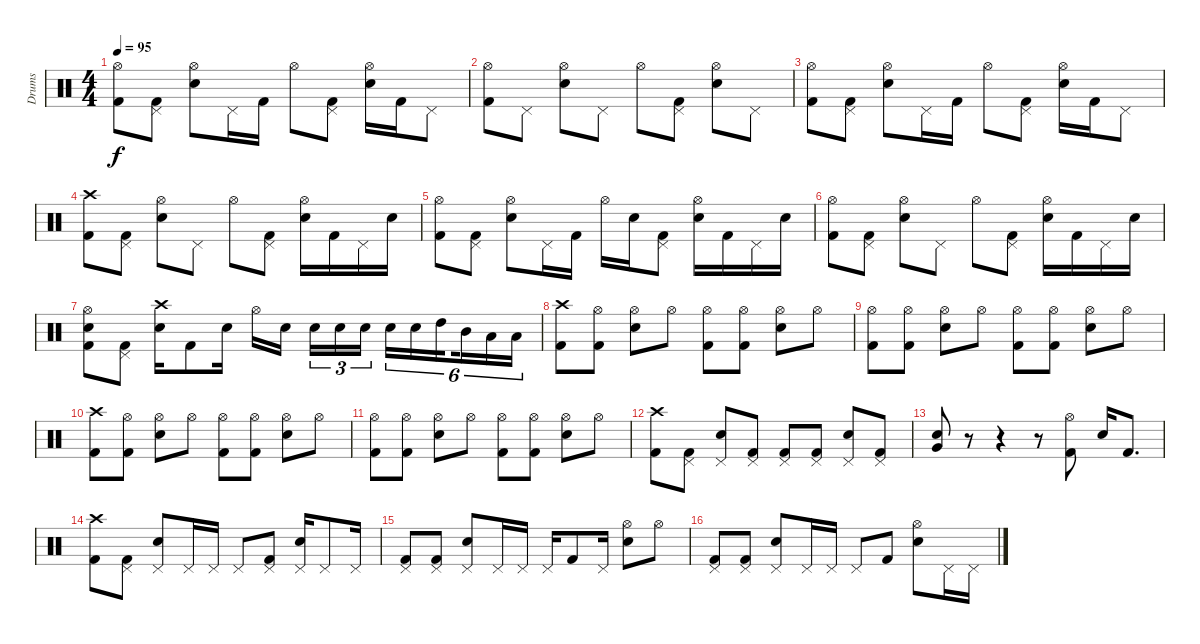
\track ("Drums" "Drums") {instrument percussion}
\staff {score}
\articulation defaults
\ts (4 4)
\tempo 95
\clef neutral
\ks c
("Hi-Hat (open)" "Kick (hit) 2").8{dy f} ("Pedal Hi-Hat (hit)" "Kick (hit) 2").8 ("Hi-Hat (open)" "Electric Snare (hit)").8 "Pedal Hi-Hat (hit)".16 "Kick (hit) 2".16 "Hi-Hat (open)".8 ("Pedal Hi-Hat (hit)" "Kick (hit) 2").8 ("Hi-Hat (open)" "Electric Snare (hit)").16 "Kick (hit) 2".16 "Pedal Hi-Hat (hit)".8 |
("Hi-Hat (open)" "Kick (hit) 2").8 "Pedal Hi-Hat (hit)".8 ("Hi-Hat (open)" "Electric Snare (hit)").8 "Pedal Hi-Hat (hit)".8 "Hi-Hat (open)".8 ("Pedal Hi-Hat (hit)" "Kick (hit) 2").8 ("Hi-Hat (open)" "Electric Snare (hit)").8 "Pedal Hi-Hat (hit)".8 |
("Hi-Hat (open)" "Kick (hit) 2").8 ("Pedal Hi-Hat (hit)" "Kick (hit) 2").8 ("Hi-Hat (open)" "Electric Snare (hit)").8 "Pedal Hi-Hat (hit)".16 "Kick (hit) 2".16 "Hi-Hat (open)".8 ("Pedal Hi-Hat (hit)" "Kick (hit) 2").8 ("Hi-Hat (open)" "Electric Snare (hit)").16 "Kick (hit) 2".16 "Pedal Hi-Hat (hit)".8 |
("Crash high (hit)" "Kick (hit) 2").8 ("Pedal Hi-Hat (hit)" "Kick (hit) 2").8 ("Hi-Hat (open)" "Electric Snare (hit)").8 "Pedal Hi-Hat (hit)".8 "Hi-Hat (open)".8 ("Pedal Hi-Hat (hit)" "Kick (hit) 2").8 ("Hi-Hat (open)" "Electric Snare (hit)").16 "Kick (hit) 2".16 "Pedal Hi-Hat (hit)".16 "Electric Snare (hit)".16 |
("Hi-Hat (open)" "Kick (hit) 2").8 ("Pedal Hi-Hat (hit)" "Kick (hit) 2").8 ("Hi-Hat (open)" "Electric Snare (hit)").8 "Pedal Hi-Hat (hit)".16 "Kick (hit) 2".16 "Hi-Hat (open)".16 "Electric Snare (hit)".16 ("Pedal Hi-Hat (hit)" "Kick (hit) 2").8 ("Hi-Hat (open)" "Electric Snare (hit)").16 "Kick (hit) 2".16 "Pedal Hi-Hat (hit)".16 "Electric Snare (hit)".16 |
("Hi-Hat (open)" "Kick (hit) 2").8 ("Pedal Hi-Hat (hit)" "Kick (hit) 2").8 ("Hi-Hat (open)" "Electric Snare (hit)").8 "Pedal Hi-Hat (hit)".8 "Hi-Hat (open)".8 ("Pedal Hi-Hat (hit)" "Kick (hit) 2").8 ("Hi-Hat (open)" "Electric Snare (hit)").16 "Kick (hit) 2".16 "Pedal Hi-Hat (hit)".16 "Electric Snare (hit)".16 |
("Hi-Hat (open)" "Electric Snare (hit)" "Kick (hit) 2").8 ("Pedal Hi-Hat (hit)" "Kick (hit) 2").8 ("Crash high (hit)" "Electric Snare (hit)").16 "Kick (hit) 2".8 "Electric Snare (hit)".16 "Hi-Hat (open)".16 "Electric Snare (hit)".16{beam splitsecondary} "Electric Snare (hit)".16{tu (3 2)} "Electric Snare (hit)".16{tu (3 2)} "Electric Snare (hit)".16{tu (3 2)} "Electric Snare (hit)".16{tu (6 4)} "Electric Snare (hit)".16{tu (6 4)} "High Tom (hit)".16{tu (6 4) beam splitsecondary} "Mid Tom (hit)".16{tu (6 4)} "Low Tom (hit)".16{tu (6 4)} "Low Tom (hit)".16{tu (6 4)} |
("Crash high (hit)" "Kick (hit) 2").8 ("Hi-Hat (open)" "Kick (hit) 2").8 ("Hi-Hat (open)" "Electric Snare (hit)").8 "Hi-Hat (open)".8 ("Hi-Hat (open)" "Kick (hit) 2").8 ("Hi-Hat (open)" "Kick (hit) 2").8 ("Hi-Hat (open)" "Electric Snare (hit)").8 "Hi-Hat (open)".8 |
("Hi-Hat (open)" "Kick (hit) 2").8 ("Hi-Hat (open)" "Kick (hit) 2").8 ("Hi-Hat (open)" "Electric Snare (hit)").8 "Hi-Hat (open)".8 ("Hi-Hat (open)" "Kick (hit) 2").8 ("Hi-Hat (open)" "Kick (hit) 2").8 ("Hi-Hat (open)" "Electric Snare (hit)").8 "Hi-Hat (open)".8 |
("Crash high (hit)" "Kick (hit) 2").8 ("Hi-Hat (open)" "Kick (hit) 2").8 ("Hi-Hat (open)" "Electric Snare (hit)").8 "Hi-Hat (open)".8 ("Hi-Hat (open)" "Kick (hit) 2").8 ("Hi-Hat (open)" "Kick (hit) 2").8 ("Hi-Hat (open)" "Electric Snare (hit)").8 "Hi-Hat (open)".8 |
("Hi-Hat (open)" "Kick (hit) 2").8 ("Hi-Hat (open)" "Kick (hit) 2").8 ("Hi-Hat (open)" "Electric Snare (hit)").8 "Hi-Hat (open)".8 ("Hi-Hat (open)" "Kick (hit) 2").8 ("Hi-Hat (open)" "Kick (hit) 2").8 ("Hi-Hat (open)" "Electric Snare (hit)").8 "Hi-Hat (open)".8 |
("Crash high (hit)" "Kick (hit) 2").8 ("Pedal Hi-Hat (hit)" "Kick (hit) 2").8 ("Pedal Hi-Hat (hit)" "Electric Snare (hit)").8 ("Pedal Hi-Hat (hit)" "Kick (hit) 2").8 ("Pedal Hi-Hat (hit)" "Kick (hit) 2").8 ("Pedal Hi-Hat (hit)" "Kick (hit) 2").8 ("Pedal Hi-Hat (hit)" "Electric Snare (hit)").8 ("Pedal Hi-Hat (hit)" "Kick (hit) 2").8 |
("Electric Snare (hit)" "Very Low Tom (hit)").8 r.8 r.4 r.8 ("Hi-Hat (open)" "Kick (hit) 2").8 "Electric Snare (hit)".16 "Kick (hit) 2".8{d} |
("Crash high (hit)" "Kick (hit) 2").8 ("Pedal Hi-Hat (hit)" "Kick (hit) 2").8 ("Pedal Hi-Hat (hit)" "Electric Snare (hit)").8 "Pedal Hi-Hat (hit)".16 "Pedal Hi-Hat (hit)".16 "Pedal Hi-Hat (hit)".8 ("Pedal Hi-Hat (hit)" "Kick (hit) 2").8 ("Pedal Hi-Hat (hit)" "Electric Snare (hit)").16 "Pedal Hi-Hat (hit)".8 "Pedal Hi-Hat (hit)".16 |
("Pedal Hi-Hat (hit)" "Kick (hit) 2").8 ("Pedal Hi-Hat (hit)" "Kick (hit) 2").8 ("Pedal Hi-Hat (hit)" "Electric Snare (hit)").8 "Pedal Hi-Hat (hit)".16 "Pedal Hi-Hat (hit)".16 "Pedal Hi-Hat (hit)".16 "Kick (hit) 2".8 "Pedal Hi-Hat (hit)".16 ("Hi-Hat (open)" "Electric Snare (hit)").8 "Hi-Hat (open)".8 |
("Pedal Hi-Hat (hit)" "Kick (hit) 2").8 ("Pedal Hi-Hat (hit)" "Kick (hit) 2").8 ("Pedal Hi-Hat (hit)" "Electric Snare (hit)").8 "Pedal Hi-Hat (hit)".16 "Pedal Hi-Hat (hit)".16 "Pedal Hi-Hat (hit)".8 "Kick (hit) 2".8 ("Hi-Hat (open)" "Electric Snare (hit)").8 "Pedal Hi-Hat (hit)".16 "Pedal Hi-Hat (hit)".16
